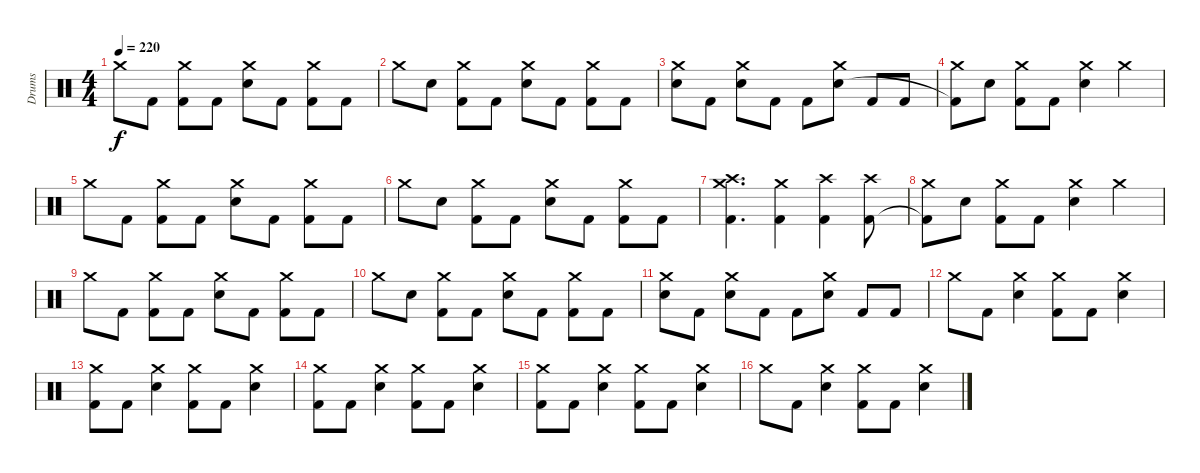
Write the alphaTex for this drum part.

\track ("Drums" "Drums") {instrument percussion}
\staff {score}
\articulation defaults
\ts (4 4)
\tempo 220
\clef neutral
\ks c "Crash medium (hit)".8{dy f} "Kick (hit) 2".8
("Crash medium (hit)" "Kick (hit) 2").8 "Kick (hit) 2".8 ("Crash medium (hit)" "Electric Snare (hit)").8 "Kick (hit) 2".8 ("Crash medium (hit)" "Kick (hit) 2").8 "Kick (hit) 2".8 |
"Crash medium (hit)".8 "Electric Snare (hit)".8 ("Crash medium (hit)" "Kick (hit) 2").8 "Kick (hit) 2".8 ("Crash medium (hit)" "Electric Snare (hit)").8 "Kick (hit) 2".8 ("Crash medium (hit)" "Kick (hit) 2").8 "Kick (hit) 2".8 |
("Crash medium (hit)" "Electric Snare (hit)").8 "Kick (hit) 2".8 ("Crash medium (hit)" "Electric Snare (hit)").8 "Kick (hit) 2".8 "Kick (hit) 2".8 ("Crash medium (hit)" "Electric Snare (hit)").8 "Kick (hit) 2".8 "Kick (hit) 2".8 |
("Crash medium (hit)" "Kick (hit) 2"{t}).8 "Electric Snare (hit)".8 ("Crash medium (hit)" "Kick (hit) 2").8 "Kick (hit) 2".8 ("Crash medium (hit)" "Electric Snare (hit)").4 "Crash medium (hit)".4 |
"Crash medium (hit)".8 "Kick (hit) 2".8 ("Crash medium (hit)" "Kick (hit) 2").8 "Kick (hit) 2".8 ("Crash medium (hit)" "Electric Snare (hit)").8 "Kick (hit) 2".8 ("Crash medium (hit)" "Kick (hit) 2").8 "Kick (hit) 2".8 |
"Crash medium (hit)".8 "Electric Snare (hit)".8 ("Crash medium (hit)" "Kick (hit) 2").8 "Kick (hit) 2".8 ("Crash medium (hit)" "Electric Snare (hit)").8 "Kick (hit) 2".8 ("Crash medium (hit)" "Kick (hit) 2").8 "Kick (hit) 2".8 |
("Crash medium (hit)" "Crash high (hit)" "Kick (hit) 2").4{d} ("Crash medium (hit)" "Kick (hit) 2").4 ("Crash high (hit)" "Kick (hit) 2").4 ("Crash high (hit)" "Kick (hit) 2").8 |
("Crash medium (hit)" "Kick (hit) 2"{t}).8 "Electric Snare (hit)".8 ("Crash medium (hit)" "Kick (hit) 2").8 "Kick (hit) 2".8 ("Crash medium (hit)" "Electric Snare (hit)").4 "Crash medium (hit)".4 |
"Crash medium (hit)".8 "Kick (hit) 2".8 ("Crash medium (hit)" "Kick (hit) 2").8 "Kick (hit) 2".8 ("Crash medium (hit)" "Electric Snare (hit)").8 "Kick (hit) 2".8 ("Crash medium (hit)" "Kick (hit) 2").8 "Kick (hit) 2".8 |
"Crash medium (hit)".8 "Electric Snare (hit)".8 ("Crash medium (hit)" "Kick (hit) 2").8 "Kick (hit) 2".8 ("Crash medium (hit)" "Electric Snare (hit)").8 "Kick (hit) 2".8 ("Crash medium (hit)" "Kick (hit) 2").8 "Kick (hit) 2".8 |
("Crash medium (hit)" "Electric Snare (hit)").8 "Kick (hit) 2".8 ("Crash medium (hit)" "Electric Snare (hit)").8 "Kick (hit) 2".8 "Kick (hit) 2".8 ("Crash medium (hit)" "Electric Snare (hit)").8 "Kick (hit) 2".8 "Kick (hit) 2".8 |
"Crash medium (hit)".8 "Kick (hit) 2".8 ("Crash medium (hit)" "Electric Snare (hit)").4 ("Crash medium (hit)" "Kick (hit) 2").8 "Kick (hit) 2".8 ("Crash medium (hit)" "Electric Snare (hit)").4 |
("Crash medium (hit)" "Kick (hit) 2").8 "Kick (hit) 2".8 ("Crash medium (hit)" "Electric Snare (hit)").4 ("Crash medium (hit)" "Kick (hit) 2").8 "Kick (hit) 2".8 ("Crash medium (hit)" "Electric Snare (hit)").4 |
("Crash medium (hit)" "Kick (hit) 2").8 "Kick (hit) 2".8 ("Crash medium (hit)" "Electric Snare (hit)").4 ("Crash medium (hit)" "Kick (hit) 2").8 "Kick (hit) 2".8 ("Crash medium (hit)" "Electric Snare (hit)").4 |
("Crash medium (hit)" "Kick (hit) 2").8 "Kick (hit) 2".8 ("Crash medium (hit)" "Electric Snare (hit)").4 ("Crash medium (hit)" "Kick (hit) 2").8 "Kick (hit) 2".8 ("Crash medium (hit)" "Electric Snare (hit)").4 |
"Crash medium (hit)".8 "Kick (hit) 2".8 ("Crash medium (hit)" "Electric Snare (hit)").4 ("Crash medium (hit)" "Kick (hit) 2").8 "Kick (hit) 2".8 ("Crash medium (hit)" "Electric Snare (hit)").4
